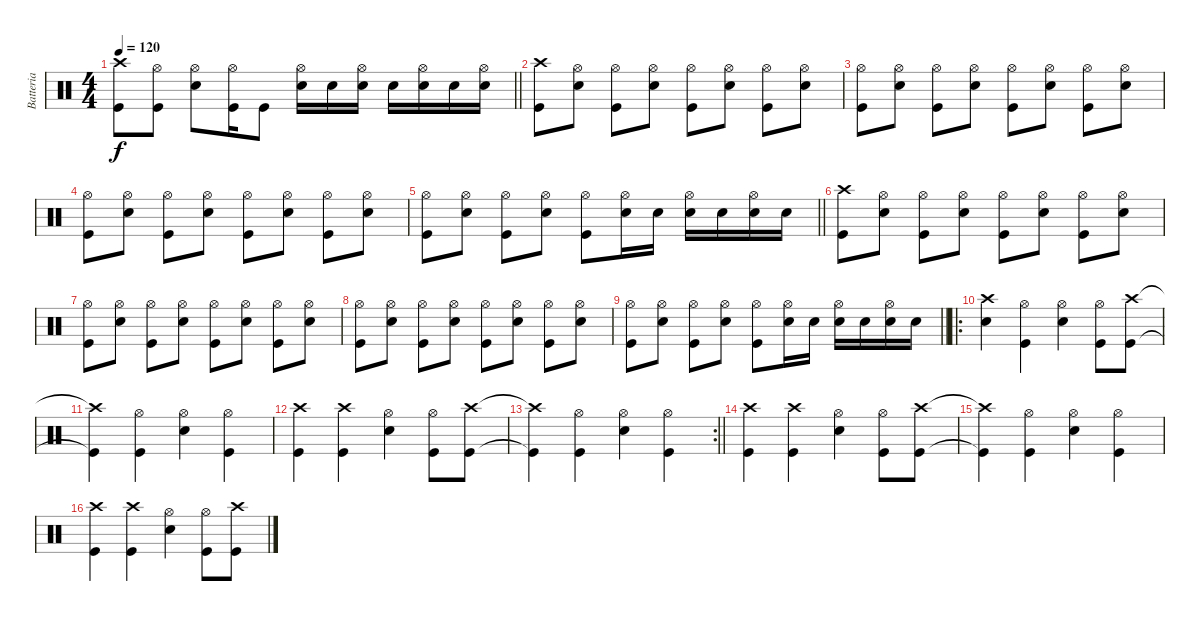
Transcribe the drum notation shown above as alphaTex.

\track ("Batteria" "Batteria") {instrument percussion}
\staff {score}
\articulation defaults
\ts (4 4)
\tempo 120
\clef neutral
\barLineRight lightlight
\ks c
("Kick (hit)" "Crash high (hit)").8{dy f} ("Kick (hit)" "Hi-Hat (open)").8 ("Snare (hit) 2" "Hi-Hat (open)").8 ("Kick (hit)" "Hi-Hat (open)").16 "Kick (hit)".8 ("Snare (hit) 2" "Hi-Hat (open)").16 "Snare (hit) 2".16 ("Snare (hit) 2" "Hi-Hat (open)").16 "Snare (hit) 2".16 ("Snare (hit) 2" "Hi-Hat (open)").16 "Snare (hit) 2".16 ("Snare (hit) 2" "Hi-Hat (open)").16 |
("Kick (hit)" "Crash high (hit)").8 ("Snare (hit) 2" "Hi-Hat (open)").8 ("Kick (hit)" "Hi-Hat (open)").8 ("Snare (hit) 2" "Hi-Hat (open)").8 ("Kick (hit)" "Hi-Hat (open)").8 ("Snare (hit) 2" "Hi-Hat (open)").8 ("Kick (hit)" "Hi-Hat (open)").8 ("Snare (hit) 2" "Hi-Hat (open)").8 |
("Kick (hit)" "Hi-Hat (open)").8 ("Snare (hit) 2" "Hi-Hat (open)").8 ("Kick (hit)" "Hi-Hat (open)").8 ("Snare (hit) 2" "Hi-Hat (open)").8 ("Kick (hit)" "Hi-Hat (open)").8 ("Snare (hit) 2" "Hi-Hat (open)").8 ("Kick (hit)" "Hi-Hat (open)").8 ("Snare (hit) 2" "Hi-Hat (open)").8 |
("Kick (hit)" "Hi-Hat (open)").8 ("Snare (hit) 2" "Hi-Hat (open)").8 ("Kick (hit)" "Hi-Hat (open)").8 ("Snare (hit) 2" "Hi-Hat (open)").8 ("Kick (hit)" "Hi-Hat (open)").8 ("Snare (hit) 2" "Hi-Hat (open)").8 ("Kick (hit)" "Hi-Hat (open)").8 ("Snare (hit) 2" "Hi-Hat (open)").8 |
\barLineRight lightlight
("Kick (hit)" "Hi-Hat (open)").8 ("Snare (hit) 2" "Hi-Hat (open)").8 ("Kick (hit)" "Hi-Hat (open)").8 ("Snare (hit) 2" "Hi-Hat (open)").8 ("Kick (hit)" "Hi-Hat (open)").8 ("Snare (hit) 2" "Hi-Hat (open)").16 "Snare (hit) 2".16 ("Snare (hit) 2" "Hi-Hat (open)").16 "Snare (hit) 2".16 ("Snare (hit) 2" "Hi-Hat (open)").16 "Snare (hit) 2".16 |
("Kick (hit)" "Crash high (hit)").8 ("Snare (hit) 2" "Hi-Hat (open)").8 ("Kick (hit)" "Hi-Hat (open)").8 ("Snare (hit) 2" "Hi-Hat (open)").8 ("Kick (hit)" "Hi-Hat (open)").8 ("Snare (hit) 2" "Hi-Hat (open)").8 ("Kick (hit)" "Hi-Hat (open)").8 ("Snare (hit) 2" "Hi-Hat (open)").8 |
("Kick (hit)" "Hi-Hat (open)").8 ("Snare (hit) 2" "Hi-Hat (open)").8 ("Kick (hit)" "Hi-Hat (open)").8 ("Snare (hit) 2" "Hi-Hat (open)").8 ("Kick (hit)" "Hi-Hat (open)").8 ("Snare (hit) 2" "Hi-Hat (open)").8 ("Kick (hit)" "Hi-Hat (open)").8 ("Snare (hit) 2" "Hi-Hat (open)").8 |
("Kick (hit)" "Hi-Hat (open)").8 ("Snare (hit) 2" "Hi-Hat (open)").8 ("Kick (hit)" "Hi-Hat (open)").8 ("Snare (hit) 2" "Hi-Hat (open)").8 ("Kick (hit)" "Hi-Hat (open)").8 ("Snare (hit) 2" "Hi-Hat (open)").8 ("Kick (hit)" "Hi-Hat (open)").8 ("Snare (hit) 2" "Hi-Hat (open)").8 |
\barLineRight lightlight
("Kick (hit)" "Hi-Hat (open)").8 ("Snare (hit) 2" "Hi-Hat (open)").8 ("Kick (hit)" "Hi-Hat (open)").8 ("Snare (hit) 2" "Hi-Hat (open)").8 ("Kick (hit)" "Hi-Hat (open)").8 ("Snare (hit) 2" "Hi-Hat (open)").16 "Snare (hit) 2".16 ("Snare (hit) 2" "Hi-Hat (open)").16 "Snare (hit) 2".16 ("Snare (hit) 2" "Hi-Hat (open)").16 "Snare (hit) 2".16 |
\ro
("Crash high (hit)" "Snare (hit) 2").4 ("Hi-Hat (open)" "Kick (hit)").4 ("Hi-Hat (open)" "Snare (hit) 2").4 ("Hi-Hat (open)" "Kick (hit)").8 ("Crash high (hit)" "Kick (hit)").8 |
("Crash high (hit)"{t} "Kick (hit)"{t}).4 ("Hi-Hat (open)" "Kick (hit)").4 ("Hi-Hat (open)" "Snare (hit) 2").4 ("Hi-Hat (open)" "Kick (hit)").4 |
("Crash high (hit)" "Kick (hit)").4 ("Crash high (hit)" "Kick (hit)").4 ("Hi-Hat (open)" "Snare (hit) 2").4 ("Hi-Hat (open)" "Kick (hit)").8 ("Crash high (hit)" "Kick (hit)").8 |
\rc 2
\barLineRight lightlight
("Crash high (hit)"{t} "Kick (hit)"{t}).4 ("Hi-Hat (open)" "Kick (hit)").4 ("Hi-Hat (open)" "Snare (hit) 2").4 ("Hi-Hat (open)" "Kick (hit)").4 |
("Crash high (hit)" "Kick (hit)").4 ("Crash high (hit)" "Kick (hit)").4 ("Hi-Hat (open)" "Snare (hit) 2").4 ("Hi-Hat (open)" "Kick (hit)").8 ("Crash high (hit)" "Kick (hit)").8 |
("Crash high (hit)"{t} "Kick (hit)"{t}).4 ("Hi-Hat (open)" "Kick (hit)").4 ("Hi-Hat (open)" "Snare (hit) 2").4 ("Hi-Hat (open)" "Kick (hit)").4 |
("Crash high (hit)" "Kick (hit)").4 ("Crash high (hit)" "Kick (hit)").4 ("Hi-Hat (open)" "Snare (hit) 2").4 ("Hi-Hat (open)" "Kick (hit)").8 ("Crash high (hit)" "Kick (hit)").8
